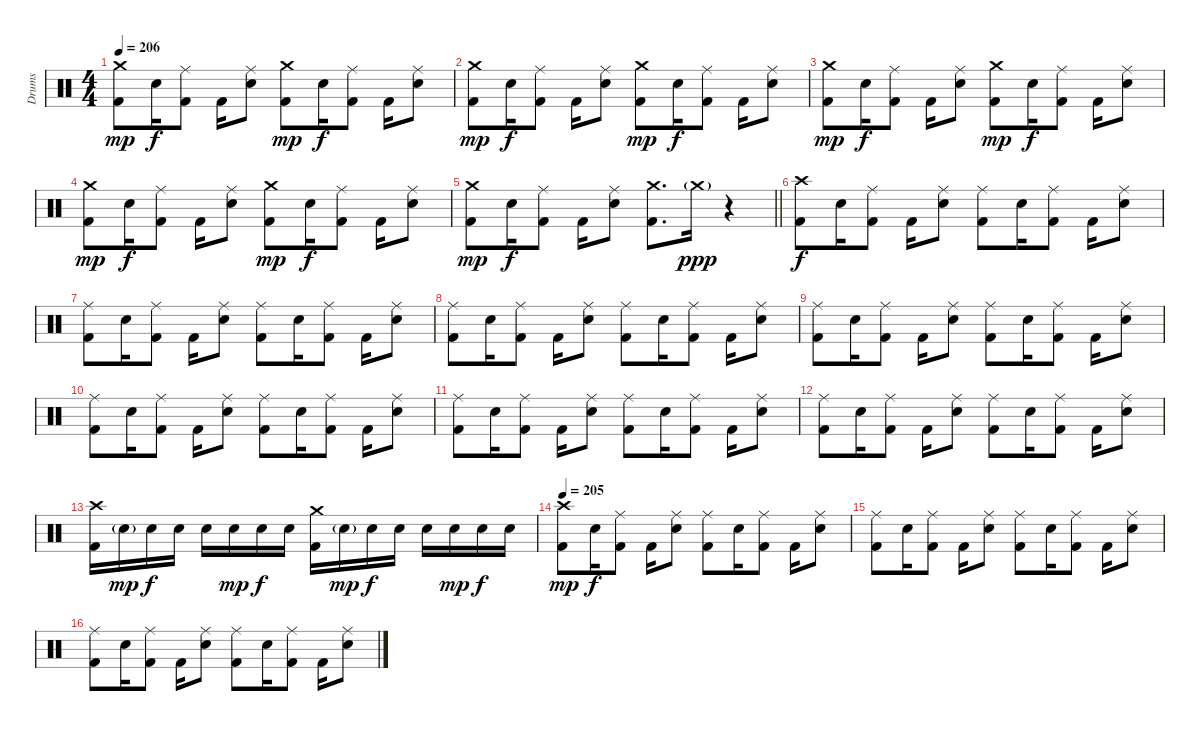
\track ("Drums" "Drums") {instrument percussion}
\staff {score}
\articulation defaults
\ts (4 4)
\tempo 206
\clef neutral
\ks c
("Crash medium (hit)" "Kick (hit) 2").8{dy mp} "Electric Snare (hit)".16{dy f} ("Ride (middle)" "Kick (hit) 2").8 "Kick (hit) 2".16 ("Ride (middle)" "Electric Snare (hit)").8 ("Crash medium (hit)" "Kick (hit) 2").8{dy mp} "Electric Snare (hit)".16{dy f} ("Ride (middle)" "Kick (hit) 2").8 "Kick (hit) 2".16 ("Ride (middle)" "Electric Snare (hit)").8 |
("Crash medium (hit)" "Kick (hit) 2").8{dy mp} "Electric Snare (hit)".16{dy f} ("Ride (middle)" "Kick (hit) 2").8 "Kick (hit) 2".16 ("Ride (middle)" "Electric Snare (hit)").8 ("Crash medium (hit)" "Kick (hit) 2").8{dy mp} "Electric Snare (hit)".16{dy f} ("Ride (middle)" "Kick (hit) 2").8 "Kick (hit) 2".16 ("Ride (middle)" "Electric Snare (hit)").8 |
("Crash medium (hit)" "Kick (hit) 2").8{dy mp} "Electric Snare (hit)".16{dy f} ("Ride (middle)" "Kick (hit) 2").8 "Kick (hit) 2".16 ("Ride (middle)" "Electric Snare (hit)").8 ("Crash medium (hit)" "Kick (hit) 2").8{dy mp} "Electric Snare (hit)".16{dy f} ("Ride (middle)" "Kick (hit) 2").8 "Kick (hit) 2".16 ("Ride (middle)" "Electric Snare (hit)").8 |
("Crash medium (hit)" "Kick (hit) 2").8{dy mp} "Electric Snare (hit)".16{dy f} ("Ride (middle)" "Kick (hit) 2").8 "Kick (hit) 2".16 ("Ride (middle)" "Electric Snare (hit)").8 ("Crash medium (hit)" "Kick (hit) 2").8{dy mp} "Electric Snare (hit)".16{dy f} ("Ride (middle)" "Kick (hit) 2").8 "Kick (hit) 2".16 ("Ride (middle)" "Electric Snare (hit)").8 |
\barLineRight lightlight
("Crash medium (hit)" "Kick (hit) 2").8{dy mp} "Electric Snare (hit)".16{dy f} ("Ride (middle)" "Kick (hit) 2").8 "Kick (hit) 2".16 ("Ride (middle)" "Electric Snare (hit)").8 ("Crash medium (hit)" "Kick (hit) 2").8{d} "Crash medium (hit)"{g}.16{dy ppp} r.4 |
\section ("" "")
("Crash high (hit)" "Kick (hit) 2").8{dy f} "Electric Snare (hit)".16 ("Ride (middle)" "Kick (hit) 2").8 "Kick (hit) 2".16 ("Ride (middle)" "Electric Snare (hit)").8 ("Ride (middle)" "Kick (hit) 2").8 "Electric Snare (hit)".16 ("Ride (middle)" "Kick (hit) 2").8 "Kick (hit) 2".16 ("Ride (middle)" "Electric Snare (hit)").8 |
("Ride (middle)" "Kick (hit) 2").8 "Electric Snare (hit)".16 ("Ride (middle)" "Kick (hit) 2").8 "Kick (hit) 2".16 ("Ride (middle)" "Electric Snare (hit)").8 ("Ride (middle)" "Kick (hit) 2").8 "Electric Snare (hit)".16 ("Ride (middle)" "Kick (hit) 2").8 "Kick (hit) 2".16 ("Ride (middle)" "Electric Snare (hit)").8 |
("Ride (middle)" "Kick (hit) 2").8 "Electric Snare (hit)".16 ("Ride (middle)" "Kick (hit) 2").8 "Kick (hit) 2".16 ("Ride (middle)" "Electric Snare (hit)").8 ("Ride (middle)" "Kick (hit) 2").8 "Electric Snare (hit)".16 ("Ride (middle)" "Kick (hit) 2").8 "Kick (hit) 2".16 ("Ride (middle)" "Electric Snare (hit)").8 |
("Ride (middle)" "Kick (hit) 2").8 "Electric Snare (hit)".16 ("Ride (middle)" "Kick (hit) 2").8 "Kick (hit) 2".16 ("Ride (middle)" "Electric Snare (hit)").8 ("Ride (middle)" "Kick (hit) 2").8 "Electric Snare (hit)".16 ("Ride (middle)" "Kick (hit) 2").8 "Kick (hit) 2".16 ("Ride (middle)" "Electric Snare (hit)").8 |
("Ride (middle)" "Kick (hit) 2").8 "Electric Snare (hit)".16 ("Ride (middle)" "Kick (hit) 2").8 "Kick (hit) 2".16 ("Ride (middle)" "Electric Snare (hit)").8 ("Ride (middle)" "Kick (hit) 2").8 "Electric Snare (hit)".16 ("Ride (middle)" "Kick (hit) 2").8 "Kick (hit) 2".16 ("Ride (middle)" "Electric Snare (hit)").8 |
("Ride (middle)" "Kick (hit) 2").8 "Electric Snare (hit)".16 ("Ride (middle)" "Kick (hit) 2").8 "Kick (hit) 2".16 ("Ride (middle)" "Electric Snare (hit)").8 ("Ride (middle)" "Kick (hit) 2").8 "Electric Snare (hit)".16 ("Ride (middle)" "Kick (hit) 2").8 "Kick (hit) 2".16 ("Ride (middle)" "Electric Snare (hit)").8 |
("Ride (middle)" "Kick (hit) 2").8 "Electric Snare (hit)".16 ("Ride (middle)" "Kick (hit) 2").8 "Kick (hit) 2".16 ("Ride (middle)" "Electric Snare (hit)").8 ("Ride (middle)" "Kick (hit) 2").8 "Electric Snare (hit)".16 ("Ride (middle)" "Kick (hit) 2").8 "Kick (hit) 2".16 ("Ride (middle)" "Electric Snare (hit)").8 |
("Crash high (hit)" "Kick (hit) 2").16 "Electric Snare (hit)"{g}.16{dy mp} "Electric Snare (hit)".16{dy f} "Electric Snare (hit)".16 "Electric Snare (hit)".16 "Electric Snare (hit)".16{dy mp} "Electric Snare (hit)".16{dy f} "Electric Snare (hit)".16 ("Crash medium (hit)" "Kick (hit) 2").16 "Electric Snare (hit)"{g}.16{dy mp} "Electric Snare (hit)".16{dy f} "Electric Snare (hit)".16 "Electric Snare (hit)".16 "Electric Snare (hit)".16{dy mp} "Electric Snare (hit)".16{dy f} "Electric Snare (hit)".16 |
\tempo 205
("Crash high (hit)" "Kick (hit) 2").8{dy mp} "Electric Snare (hit)".16{dy f} ("Ride (middle)" "Kick (hit) 2").8 "Kick (hit) 2".16 ("Ride (middle)" "Electric Snare (hit)").8 ("Ride (middle)" "Kick (hit) 2").8 "Electric Snare (hit)".16 ("Ride (middle)" "Kick (hit) 2").8 "Kick (hit) 2".16 ("Ride (middle)" "Electric Snare (hit)").8 |
("Ride (middle)" "Kick (hit) 2").8 "Electric Snare (hit)".16 ("Ride (middle)" "Kick (hit) 2").8 "Kick (hit) 2".16 ("Ride (middle)" "Electric Snare (hit)").8 ("Ride (middle)" "Kick (hit) 2").8 "Electric Snare (hit)".16 ("Ride (middle)" "Kick (hit) 2").8 "Kick (hit) 2".16 ("Ride (middle)" "Electric Snare (hit)").8 |
("Ride (middle)" "Kick (hit) 2").8 "Electric Snare (hit)".16 ("Ride (middle)" "Kick (hit) 2").8 "Kick (hit) 2".16 ("Ride (middle)" "Electric Snare (hit)").8 ("Ride (middle)" "Kick (hit) 2").8 "Electric Snare (hit)".16 ("Ride (middle)" "Kick (hit) 2").8 "Kick (hit) 2".16 ("Ride (middle)" "Electric Snare (hit)").8
